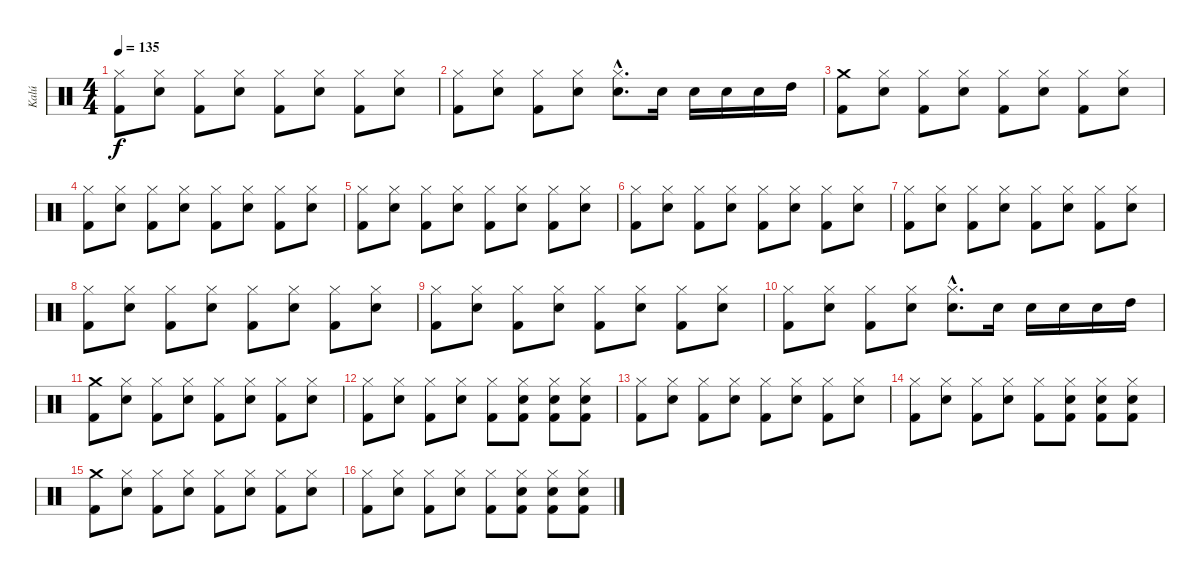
\track ("Kalú" "Kalú") {instrument percussion}
\staff {score}
\articulation defaults
\ts (4 4)
\tempo 135
\clef neutral
\ks c
("Hi-Hat (closed)" "Kick (hit) 2").8{dy f} ("Hi-Hat (closed)" "Electric Snare (hit)").8 ("Hi-Hat (closed)" "Kick (hit) 2").8 ("Hi-Hat (closed)" "Electric Snare (hit)").8 ("Hi-Hat (closed)" "Kick (hit) 2").8 ("Hi-Hat (closed)" "Electric Snare (hit)").8 ("Hi-Hat (closed)" "Kick (hit) 2").8 ("Hi-Hat (closed)" "Electric Snare (hit)").8 |
("Hi-Hat (closed)" "Kick (hit) 2").8 ("Hi-Hat (closed)" "Electric Snare (hit)").8 ("Hi-Hat (closed)" "Kick (hit) 2").8 ("Hi-Hat (closed)" "Electric Snare (hit)").8 ("Hi-Hat (closed)"{hac} "Electric Snare (hit)"{hac}).8{d} "Electric Snare (hit)".16 "Electric Snare (hit)".16 "Electric Snare (hit)".16 "Electric Snare (hit)".16 "High Tom (hit)".16 |
("Crash medium (hit)" "Kick (hit) 2").8 ("Hi-Hat (closed)" "Electric Snare (hit)").8 ("Hi-Hat (closed)" "Kick (hit) 2").8 ("Hi-Hat (closed)" "Electric Snare (hit)").8 ("Hi-Hat (closed)" "Kick (hit) 2").8 ("Hi-Hat (closed)" "Electric Snare (hit)").8 ("Hi-Hat (closed)" "Kick (hit) 2").8 ("Hi-Hat (closed)" "Electric Snare (hit)").8 |
("Hi-Hat (closed)" "Kick (hit) 2").8 ("Hi-Hat (closed)" "Electric Snare (hit)").8 ("Hi-Hat (closed)" "Kick (hit) 2").8 ("Hi-Hat (closed)" "Electric Snare (hit)").8 ("Hi-Hat (closed)" "Kick (hit) 2").8 ("Hi-Hat (closed)" "Electric Snare (hit)").8 ("Hi-Hat (closed)" "Kick (hit) 2").8 ("Hi-Hat (closed)" "Electric Snare (hit)").8 |
("Hi-Hat (closed)" "Kick (hit) 2").8 ("Hi-Hat (closed)" "Electric Snare (hit)").8 ("Hi-Hat (closed)" "Kick (hit) 2").8 ("Hi-Hat (closed)" "Electric Snare (hit)").8 ("Hi-Hat (closed)" "Kick (hit) 2").8 ("Hi-Hat (closed)" "Electric Snare (hit)").8 ("Hi-Hat (closed)" "Kick (hit) 2").8 ("Hi-Hat (closed)" "Electric Snare (hit)").8 |
("Hi-Hat (closed)" "Kick (hit) 2").8 ("Hi-Hat (closed)" "Electric Snare (hit)").8 ("Hi-Hat (closed)" "Kick (hit) 2").8 ("Hi-Hat (closed)" "Electric Snare (hit)").8 ("Hi-Hat (closed)" "Kick (hit) 2").8 ("Hi-Hat (closed)" "Electric Snare (hit)").8 ("Hi-Hat (closed)" "Kick (hit) 2").8 ("Hi-Hat (closed)" "Electric Snare (hit)").8 |
("Hi-Hat (closed)" "Kick (hit) 2").8 ("Hi-Hat (closed)" "Electric Snare (hit)").8 ("Hi-Hat (closed)" "Kick (hit) 2").8 ("Hi-Hat (closed)" "Electric Snare (hit)").8 ("Hi-Hat (closed)" "Kick (hit) 2").8 ("Hi-Hat (closed)" "Electric Snare (hit)").8 ("Hi-Hat (closed)" "Kick (hit) 2").8 ("Hi-Hat (closed)" "Electric Snare (hit)").8 |
("Hi-Hat (closed)" "Kick (hit) 2").8 ("Hi-Hat (closed)" "Electric Snare (hit)").8 ("Hi-Hat (closed)" "Kick (hit) 2").8 ("Hi-Hat (closed)" "Electric Snare (hit)").8 ("Hi-Hat (closed)" "Kick (hit) 2").8 ("Hi-Hat (closed)" "Electric Snare (hit)").8 ("Hi-Hat (closed)" "Kick (hit) 2").8 ("Hi-Hat (closed)" "Electric Snare (hit)").8 |
("Hi-Hat (closed)" "Kick (hit) 2").8 ("Hi-Hat (closed)" "Electric Snare (hit)").8 ("Hi-Hat (closed)" "Kick (hit) 2").8 ("Hi-Hat (closed)" "Electric Snare (hit)").8 ("Hi-Hat (closed)" "Kick (hit) 2").8 ("Hi-Hat (closed)" "Electric Snare (hit)").8 ("Hi-Hat (closed)" "Kick (hit) 2").8 ("Hi-Hat (closed)" "Electric Snare (hit)").8 |
("Hi-Hat (closed)" "Kick (hit) 2").8 ("Hi-Hat (closed)" "Electric Snare (hit)").8 ("Hi-Hat (closed)" "Kick (hit) 2").8 ("Hi-Hat (closed)" "Electric Snare (hit)").8 ("Hi-Hat (closed)"{hac} "Electric Snare (hit)"{hac}).8{d} "Electric Snare (hit)".16 "Electric Snare (hit)".16 "Electric Snare (hit)".16 "Electric Snare (hit)".16 "High Tom (hit)".16 |
("Crash medium (hit)" "Kick (hit) 2").8 ("Hi-Hat (closed)" "Electric Snare (hit)").8 ("Hi-Hat (closed)" "Kick (hit) 2").8 ("Hi-Hat (closed)" "Electric Snare (hit)").8 ("Hi-Hat (closed)" "Kick (hit) 2").8 ("Hi-Hat (closed)" "Electric Snare (hit)").8 ("Hi-Hat (closed)" "Kick (hit) 2").8 ("Hi-Hat (closed)" "Electric Snare (hit)").8 |
("Hi-Hat (closed)" "Kick (hit) 2").8 ("Hi-Hat (closed)" "Electric Snare (hit)").8 ("Hi-Hat (closed)" "Kick (hit) 2").8 ("Hi-Hat (closed)" "Electric Snare (hit)").8 ("Hi-Hat (closed)" "Kick (hit) 2").8 ("Hi-Hat (closed)" "Kick (hit) 2" "Electric Snare (hit)").8 ("Hi-Hat (closed)" "Kick (hit) 2" "Electric Snare (hit)").8 ("Hi-Hat (closed)" "Kick (hit) 2" "Electric Snare (hit)").8 |
("Hi-Hat (closed)" "Kick (hit) 2").8 ("Hi-Hat (closed)" "Electric Snare (hit)").8 ("Hi-Hat (closed)" "Kick (hit) 2").8 ("Hi-Hat (closed)" "Electric Snare (hit)").8 ("Hi-Hat (closed)" "Kick (hit) 2").8 ("Hi-Hat (closed)" "Electric Snare (hit)").8 ("Hi-Hat (closed)" "Kick (hit) 2").8 ("Hi-Hat (closed)" "Electric Snare (hit)").8 |
("Hi-Hat (closed)" "Kick (hit) 2").8 ("Hi-Hat (closed)" "Electric Snare (hit)").8 ("Hi-Hat (closed)" "Kick (hit) 2").8 ("Hi-Hat (closed)" "Electric Snare (hit)").8 ("Hi-Hat (closed)" "Kick (hit) 2").8 ("Hi-Hat (closed)" "Kick (hit) 2" "Electric Snare (hit)").8 ("Hi-Hat (closed)" "Kick (hit) 2" "Electric Snare (hit)").8 ("Hi-Hat (closed)" "Kick (hit) 2" "Electric Snare (hit)").8 |
("Crash medium (hit)" "Kick (hit) 2").8 ("Hi-Hat (closed)" "Electric Snare (hit)").8 ("Hi-Hat (closed)" "Kick (hit) 2").8 ("Hi-Hat (closed)" "Electric Snare (hit)").8 ("Hi-Hat (closed)" "Kick (hit) 2").8 ("Hi-Hat (closed)" "Electric Snare (hit)").8 ("Hi-Hat (closed)" "Kick (hit) 2").8 ("Hi-Hat (closed)" "Electric Snare (hit)").8 |
("Hi-Hat (closed)" "Kick (hit) 2").8 ("Hi-Hat (closed)" "Electric Snare (hit)").8 ("Hi-Hat (closed)" "Kick (hit) 2").8 ("Hi-Hat (closed)" "Electric Snare (hit)").8 ("Hi-Hat (closed)" "Kick (hit) 2").8 ("Hi-Hat (closed)" "Kick (hit) 2" "Electric Snare (hit)").8 ("Hi-Hat (closed)" "Kick (hit) 2" "Electric Snare (hit)").8 ("Hi-Hat (closed)" "Kick (hit) 2" "Electric Snare (hit)").8
